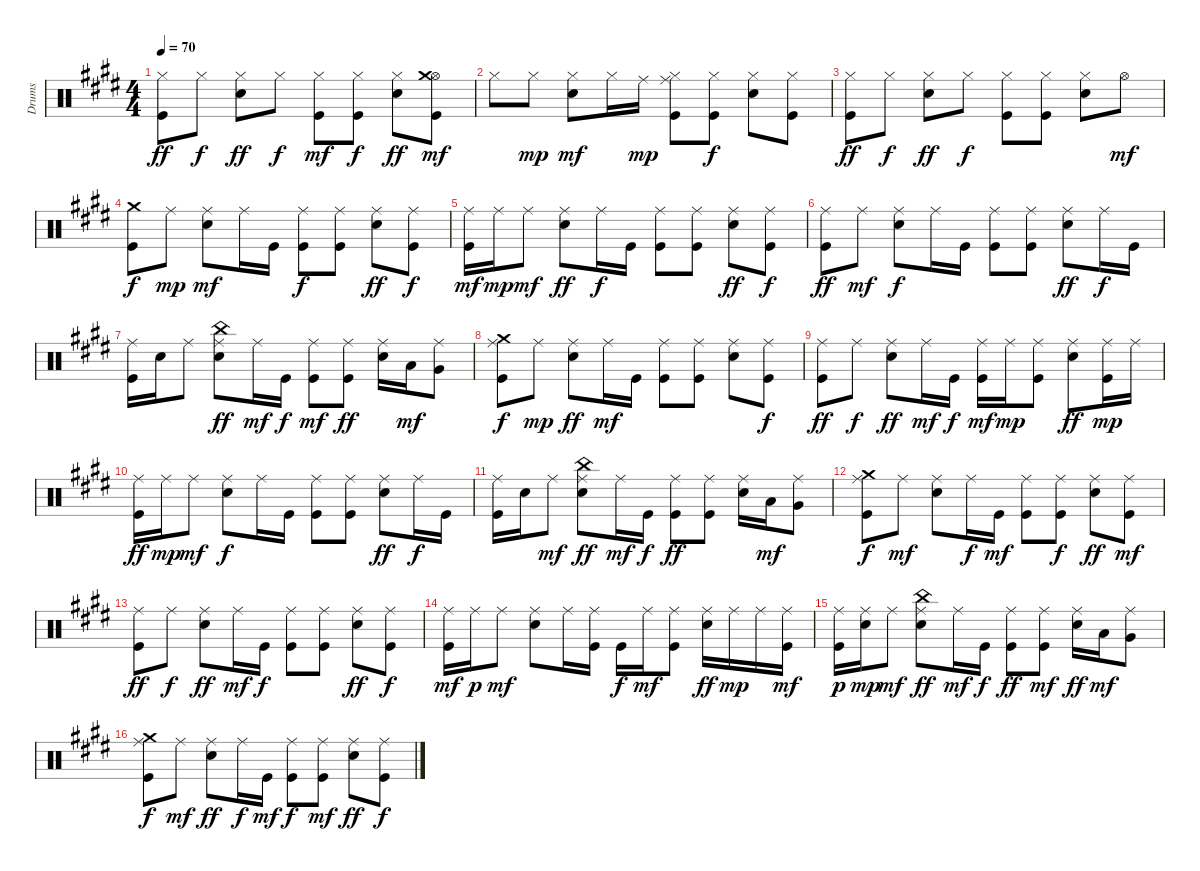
\track ("Drums" "Drums") {instrument percussion}
\staff {score}
\articulation defaults
\ts (4 4)
\tempo 70
\clef neutral
\ks e
("Kick (hit)" "Hi-Hat (closed)").8{dy ff} "Hi-Hat (closed)".8{dy f} ("Snare (hit) 2" "Hi-Hat (closed)").8{dy ff} "Hi-Hat (closed)".8{dy f} ("Kick (hit)" "Hi-Hat (closed)").8{dy mf} ("Kick (hit)" "Hi-Hat (closed)").8{dy f} ("Snare (hit) 2" "Hi-Hat (closed)").8{dy ff} ("Kick (hit)" "Hi-Hat (open)" "Crash medium (hit)").8{dy mf} |
"Hi-Hat (closed)".8 "Hi-Hat (closed)".8{dy mp} ("Snare (hit) 2" "Hi-Hat (closed)").8{dy mf} "Hi-Hat (closed)".16 "Ride (middle)".16{dy mp} ("Kick (hit)" "Hi-Hat (closed)" "Ride (middle)").8 ("Kick (hit)" "Hi-Hat (closed)").8{dy f} ("Snare (hit) 2" "Hi-Hat (closed)").8 ("Kick (hit)" "Hi-Hat (closed)").8 |
("Kick (hit)" "Hi-Hat (closed)").8{dy ff} "Hi-Hat (closed)".8{dy f} ("Snare (hit) 2" "Hi-Hat (closed)").8{dy ff} "Hi-Hat (closed)".8{dy f} ("Kick (hit)" "Hi-Hat (closed)").8 ("Kick (hit)" "Hi-Hat (closed)").8 ("Snare (hit) 2" "Hi-Hat (closed)").8 "Hi-Hat (open)".8{dy mf} |
("Kick (hit)" "Crash medium (hit)").8{dy f} "Ride (middle)".8{dy mp} ("Snare (hit) 2" "Ride (middle)").8{dy mf} "Ride (middle)".16 "Kick (hit)".16 ("Kick (hit)" "Ride (middle)").8{dy f} ("Kick (hit)" "Ride (middle)").8 ("Snare (hit) 2" "Ride (middle)").8{dy ff} ("Kick (hit)" "Ride (middle)").8{dy f} |
("Kick (hit)" "Ride (middle)").16{dy mf} "Ride (middle)".16{dy mp} "Ride (middle)".8{dy mf} ("Snare (hit) 2" "Ride (middle)").8{dy ff} "Ride (middle)".16{dy f} "Kick (hit)".16 ("Kick (hit)" "Ride (middle)").8 ("Kick (hit)" "Ride (middle)").8 ("Snare (hit) 2" "Ride (middle)").8{dy ff} ("Kick (hit)" "Ride (middle)").8{dy f} |
("Kick (hit)" "Ride (middle)").8{dy ff} "Ride (middle)".8{dy mf} ("Snare (hit) 2" "Ride (middle)").8{dy f} "Ride (middle)".16 "Kick (hit)".16 ("Kick (hit)" "Ride (middle)").8 ("Kick (hit)" "Ride (middle)").8 ("Snare (hit) 2" "Ride (middle)").8{dy ff} "Ride (middle)".16{dy f} "Kick (hit)".16 |
("Kick (hit)" "Ride (middle)").16 "Snare (hit) 2".16 "Ride (middle)".8 ("Snare (hit) 2" "Ride (middle)" "China (hit)").8{dy ff} "Ride (middle)".16{dy mf} "Kick (hit)".16{dy f} ("Kick (hit)" "Ride (middle)").8{dy mf} ("Kick (hit)" "Ride (middle)").8{dy ff} ("Snare (hit) 2" "Ride (middle)").16 "Low Tom (hit)".16{dy mf} ("Very Low Tom (hit)" "Ride (middle)").8 |
("Kick (hit)" "Ride (middle)" "Crash medium (hit)").8{dy f} "Ride (middle)".8{dy mp} ("Snare (hit) 2" "Ride (middle)").8{dy ff} "Ride (middle)".16{dy mf} "Kick (hit)".16 ("Kick (hit)" "Ride (middle)").8 ("Kick (hit)" "Ride (middle)").8 ("Snare (hit) 2" "Ride (middle)").8 ("Kick (hit)" "Ride (middle)").8{dy f} |
("Kick (hit)" "Ride (middle)").8{dy ff} "Ride (middle)".8{dy f} ("Snare (hit) 2" "Ride (middle)").8{dy ff} "Ride (middle)".16{dy mf} "Kick (hit)".16{dy f} ("Kick (hit)" "Ride (middle)").16{dy mf} "Ride (middle)".16{dy mp} ("Kick (hit)" "Ride (middle)").8 ("Snare (hit) 2" "Ride (middle)").8{dy ff} ("Kick (hit)" "Ride (middle)").16{dy mp} "Ride (middle)".16 |
("Kick (hit)" "Ride (middle)").16{dy ff} "Ride (middle)".16{dy mp} "Ride (middle)".8{dy mf} ("Snare (hit) 2" "Ride (middle)").8{dy f} "Ride (middle)".16 "Kick (hit)".16 ("Kick (hit)" "Ride (middle)").8 ("Kick (hit)" "Ride (middle)").8 ("Snare (hit) 2" "Ride (middle)").8{dy ff} "Ride (middle)".16{dy f} "Kick (hit)".16 |
("Kick (hit)" "Ride (middle)").16 "Snare (hit) 2".16 "Ride (middle)".8{dy mf} ("Snare (hit) 2" "Ride (middle)" "China (hit)").8{dy ff} "Ride (middle)".16{dy mf} "Kick (hit)".16{dy f} ("Kick (hit)" "Ride (middle)").8{dy ff} ("Kick (hit)" "Ride (middle)").8 ("Snare (hit) 2" "Ride (middle)").16 "Low Tom (hit)".16{dy mf} ("Very Low Tom (hit)" "Ride (middle)").8 |
("Kick (hit)" "Ride (middle)" "Crash medium (hit)").8{dy f} "Ride (middle)".8{dy mf} ("Snare (hit) 2" "Ride (middle)").8 "Ride (middle)".16{dy f} "Kick (hit)".16{dy mf} ("Kick (hit)" "Ride (middle)").8 ("Kick (hit)" "Ride (middle)").8{dy f} ("Snare (hit) 2" "Ride (middle)").8{dy ff} ("Kick (hit)" "Ride (middle)").8{dy mf} |
("Kick (hit)" "Ride (middle)").8{dy ff} "Ride (middle)".8{dy f} ("Snare (hit) 2" "Ride (middle)").8{dy ff} "Ride (middle)".16{dy mf} "Kick (hit)".16{dy f} ("Kick (hit)" "Ride (middle)").8 ("Kick (hit)" "Ride (middle)").8 ("Snare (hit) 2" "Ride (middle)").8{dy ff} ("Kick (hit)" "Ride (middle)").8{dy f} |
("Kick (hit)" "Ride (middle)").16{dy mf} "Ride (middle)".16{dy p} "Ride (middle)".8{dy mf} ("Snare (hit) 2" "Ride (middle)").8 "Ride (middle)".16 ("Kick (hit)" "Ride (middle)").16 "Kick (hit)".16{dy f} "Ride (middle)".16{dy mf} ("Kick (hit)" "Ride (middle)").8 ("Snare (hit) 2" "Ride (middle)").16{dy ff} "Ride (middle)".16{dy mp} "Ride (middle)".16 ("Kick (hit)" "Ride (middle)").16{dy mf} |
("Kick (hit)" "Ride (middle)").16{dy p} ("Snare (hit) 2" "Ride (middle)").16{dy mp} "Ride (middle)".8{dy mf} ("Snare (hit) 2" "Ride (middle)" "China (hit)").8{dy ff} "Ride (middle)".16{dy mf} "Kick (hit)".16{dy f} ("Kick (hit)" "Ride (middle)").8{dy ff} ("Kick (hit)" "Ride (middle)").8{dy mf} ("Snare (hit) 2" "Ride (middle)").16{dy ff} "Low Tom (hit)".16{dy mf} ("Very Low Tom (hit)" "Ride (middle)").8 |
("Kick (hit)" "Ride (middle)" "Crash medium (hit)").8{dy f} "Ride (middle)".8{dy mf} ("Snare (hit) 2" "Ride (middle)").8{dy ff} "Ride (middle)".16{dy f} "Kick (hit)".16{dy mf} ("Kick (hit)" "Ride (middle)").8{dy f} ("Kick (hit)" "Ride (middle)").8{dy mf} ("Snare (hit) 2" "Ride (middle)").8{dy ff} ("Kick (hit)" "Ride (middle)").8{dy f}
